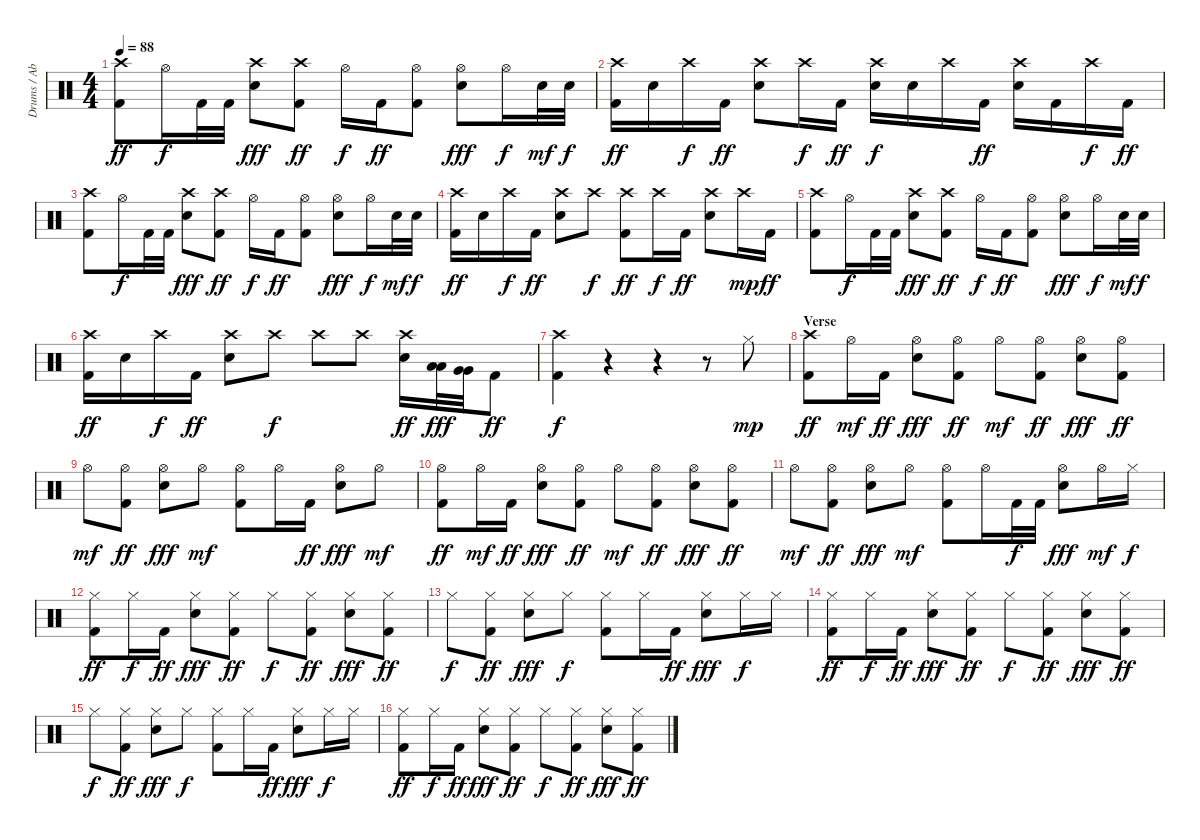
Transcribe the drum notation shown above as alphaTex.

\track ("Drums / Abe Cunningham" "Drums / Ab") {instrument percussion}
\staff {score}
\articulation defaults
\ts (4 4)
\tempo 88
\clef neutral
\ks c
("Crash high (hit)" "Kick (hit) 2").8{dy ff} "Hi-Hat (open)".16{dy f} "Kick (hit) 2".32 "Kick (hit) 2".32 ("Crash high (hit)" "Electric Snare (hit)").8{dy fff} ("Crash high (hit)" "Kick (hit) 2").8{dy ff} "Hi-Hat (open)".16{dy f} "Kick (hit) 2".16{dy ff} ("Hi-Hat (open)" "Kick (hit) 2").8 ("Hi-Hat (open)" "Electric Snare (hit)").8{dy fff} "Hi-Hat (open)".16{dy f} "Electric Snare (hit)".32{dy mf} "Electric Snare (hit)".32{dy f} |
("Crash high (hit)" "Kick (hit) 2").16{dy ff} "Electric Snare (hit)".16 "Crash high (hit)".16{dy f} "Kick (hit) 2".16{dy ff} ("Crash high (hit)" "Electric Snare (hit)").8 "Crash high (hit)".16{dy f} "Kick (hit) 2".16{dy ff} ("Crash high (hit)" "Electric Snare (hit)").16{dy f} "Electric Snare (hit)".16 "Crash high (hit)".16 "Kick (hit) 2".16{dy ff} ("Crash high (hit)" "Electric Snare (hit)").16 "Kick (hit) 2".16 "Crash high (hit)".16{dy f} "Kick (hit) 2".16{dy ff} |
("Crash high (hit)" "Kick (hit) 2").8 "Hi-Hat (open)".16{dy f} "Kick (hit) 2".32 "Kick (hit) 2".32 ("Crash high (hit)" "Electric Snare (hit)").8{dy fff} ("Crash high (hit)" "Kick (hit) 2").8{dy ff} "Hi-Hat (open)".16{dy f} "Kick (hit) 2".16{dy ff} ("Hi-Hat (open)" "Kick (hit) 2").8 ("Hi-Hat (open)" "Electric Snare (hit)").8{dy fff} "Hi-Hat (open)".16{dy f} "Electric Snare (hit)".32{dy mf} "Electric Snare (hit)".32{dy f} |
("Crash high (hit)" "Kick (hit) 2").16{dy ff} "Electric Snare (hit)".16 "Crash high (hit)".16{dy f} "Kick (hit) 2".16{dy ff} ("Crash high (hit)" "Electric Snare (hit)").8 "Crash high (hit)".8{dy f} ("Crash high (hit)" "Kick (hit) 2").8{dy ff} "Crash high (hit)".16{dy f} "Kick (hit) 2".16{dy ff} ("Crash high (hit)" "Electric Snare (hit)").8 "Crash high (hit)".16{dy mp} "Kick (hit) 2".16{dy ff} |
("Crash high (hit)" "Kick (hit) 2").8 "Hi-Hat (open)".16{dy f} "Kick (hit) 2".32 "Kick (hit) 2".32 ("Crash high (hit)" "Electric Snare (hit)").8{dy fff} ("Crash high (hit)" "Kick (hit) 2").8{dy ff} "Hi-Hat (open)".16{dy f} "Kick (hit) 2".16{dy ff} ("Hi-Hat (open)" "Kick (hit) 2").8 ("Hi-Hat (open)" "Electric Snare (hit)").8{dy fff} "Hi-Hat (open)".16{dy f} "Electric Snare (hit)".32{dy mf} "Electric Snare (hit)".32{dy f} |
("Crash high (hit)" "Kick (hit) 2").16{dy ff} "Electric Snare (hit)".16 "Crash high (hit)".16{dy f} "Kick (hit) 2".16{dy ff} ("Crash high (hit)" "Electric Snare (hit)").8 "Crash high (hit)".8{dy f} "Crash high (hit)".8 "Crash high (hit)".8 ("Crash high (hit)" "Electric Snare (hit)").16{dy ff} ("Low Tom (hit)" "Low Tom (hit)").32{dy fff} ("Very Low Tom (hit)" "Very Low Tom (hit)").32 "Kick (hit) 2".8{dy ff} |
("Crash high (hit)" "Kick (hit) 2").4{dy f} r.4 r.4 r.8 "Hi-Hat (closed)".8{dy mp} |
\section ("" "Verse")
("Crash high (hit)" "Kick (hit) 2").8{dy ff} "Hi-Hat (open)".16{dy mf} "Kick (hit) 2".16{dy ff} ("Hi-Hat (open)" "Electric Snare (hit)").8{dy fff} ("Hi-Hat (open)" "Kick (hit) 2").8{dy ff} "Hi-Hat (open)".8{dy mf} ("Hi-Hat (open)" "Kick (hit) 2").8{dy ff} ("Hi-Hat (open)" "Electric Snare (hit)").8{dy fff} ("Hi-Hat (open)" "Kick (hit) 2").8{dy ff} |
"Hi-Hat (open)".8{dy mf} ("Hi-Hat (open)" "Kick (hit) 2").8{dy ff} ("Hi-Hat (open)" "Electric Snare (hit)").8{dy fff} "Hi-Hat (open)".8{dy mf} ("Hi-Hat (open)" "Kick (hit) 2").8 "Hi-Hat (open)".16 "Kick (hit) 2".16{dy ff} ("Hi-Hat (open)" "Electric Snare (hit)").8{dy fff} "Hi-Hat (open)".8{dy mf} |
("Hi-Hat (open)" "Kick (hit) 2").8{dy ff} "Hi-Hat (open)".16{dy mf} "Kick (hit) 2".16{dy ff} ("Hi-Hat (open)" "Electric Snare (hit)").8{dy fff} ("Hi-Hat (open)" "Kick (hit) 2").8{dy ff} "Hi-Hat (open)".8{dy mf} ("Hi-Hat (open)" "Kick (hit) 2").8{dy ff} ("Hi-Hat (open)" "Electric Snare (hit)").8{dy fff} ("Hi-Hat (open)" "Kick (hit) 2").8{dy ff} |
"Hi-Hat (open)".8{dy mf} ("Hi-Hat (open)" "Kick (hit) 2").8{dy ff} ("Hi-Hat (open)" "Electric Snare (hit)").8{dy fff} "Hi-Hat (open)".8{dy mf} ("Hi-Hat (open)" "Kick (hit) 2").8 "Hi-Hat (open)".16 "Kick (hit) 2".32{dy f} "Kick (hit) 2".32 ("Hi-Hat (open)" "Electric Snare (hit)").8{dy fff} "Hi-Hat (open)".16{dy mf} "Hi-Hat (closed)".16{dy f} |
("Hi-Hat (closed)" "Kick (hit) 2").8{dy ff} "Hi-Hat (closed)".16{dy f} "Kick (hit) 2".16{dy ff} ("Hi-Hat (closed)" "Electric Snare (hit)").8{dy fff} ("Hi-Hat (closed)" "Kick (hit) 2").8{dy ff} "Hi-Hat (closed)".8{dy f} ("Hi-Hat (closed)" "Kick (hit) 2").8{dy ff} ("Hi-Hat (closed)" "Electric Snare (hit)").8{dy fff} ("Hi-Hat (closed)" "Kick (hit) 2").8{dy ff} |
"Hi-Hat (closed)".8{dy f} ("Hi-Hat (closed)" "Kick (hit) 2").8{dy ff} ("Hi-Hat (closed)" "Electric Snare (hit)").8{dy fff} "Hi-Hat (closed)".8{dy f} ("Hi-Hat (closed)" "Kick (hit) 2").8 "Hi-Hat (closed)".16 "Kick (hit) 2".16{dy ff} ("Hi-Hat (closed)" "Electric Snare (hit)").8{dy fff} "Hi-Hat (closed)".16{dy f} "Hi-Hat (closed)".16 |
("Hi-Hat (closed)" "Kick (hit) 2").8{dy ff} "Hi-Hat (closed)".16{dy f} "Kick (hit) 2".16{dy ff} ("Hi-Hat (closed)" "Electric Snare (hit)").8{dy fff} ("Hi-Hat (closed)" "Kick (hit) 2").8{dy ff} "Hi-Hat (closed)".8{dy f} ("Hi-Hat (closed)" "Kick (hit) 2").8{dy ff} ("Hi-Hat (closed)" "Electric Snare (hit)").8{dy fff} ("Hi-Hat (closed)" "Kick (hit) 2").8{dy ff} |
"Hi-Hat (closed)".8{dy f} ("Hi-Hat (closed)" "Kick (hit) 2").8{dy ff} ("Hi-Hat (closed)" "Electric Snare (hit)").8{dy fff} "Hi-Hat (closed)".8{dy f} ("Hi-Hat (closed)" "Kick (hit) 2").8 "Hi-Hat (closed)".16 "Kick (hit) 2".16{dy ff} ("Hi-Hat (closed)" "Electric Snare (hit)").8{dy fff} "Hi-Hat (closed)".16{dy f} "Hi-Hat (closed)".16 |
("Hi-Hat (closed)" "Kick (hit) 2").8{dy ff} "Hi-Hat (closed)".16{dy f} "Kick (hit) 2".16{dy ff} ("Hi-Hat (closed)" "Electric Snare (hit)").8{dy fff} ("Hi-Hat (closed)" "Kick (hit) 2").8{dy ff} "Hi-Hat (closed)".8{dy f} ("Hi-Hat (closed)" "Kick (hit) 2").8{dy ff} ("Hi-Hat (closed)" "Electric Snare (hit)").8{dy fff} ("Hi-Hat (closed)" "Kick (hit) 2").8{dy ff}
